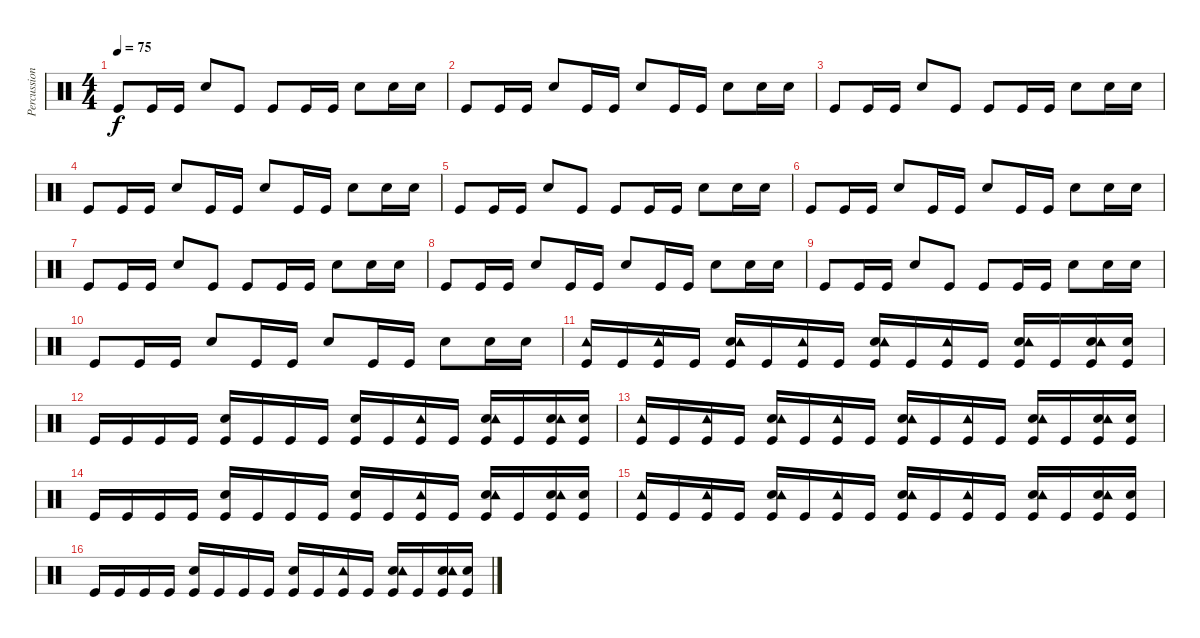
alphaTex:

\track ("Percussioni" "Percussion") {instrument percussion}
\staff {score}
\articulation defaults
\ts (4 4)
\tempo 75
\clef neutral
\ks c "Kick (hit)".8{dy f} "Kick (hit)".16 "Kick (hit)".16 "Snare (hit) 2".8 "Kick (hit)".8 "Kick (hit)".8 "Kick (hit)".16 "Kick (hit)".16 "Snare (hit) 2".8 "Snare (hit) 2".16 "Snare (hit) 2".16
|
"Kick (hit)".8 "Kick (hit)".16 "Kick (hit)".16 "Snare (hit) 2".8 "Kick (hit)".16 "Kick (hit)".16 "Snare (hit) 2".8 "Kick (hit)".16 "Kick (hit)".16 "Snare (hit) 2".8 "Snare (hit) 2".16 "Snare (hit) 2".16 |
"Kick (hit)".8 "Kick (hit)".16 "Kick (hit)".16 "Snare (hit) 2".8 "Kick (hit)".8 "Kick (hit)".8 "Kick (hit)".16 "Kick (hit)".16 "Snare (hit) 2".8 "Snare (hit) 2".16 "Snare (hit) 2".16 |
"Kick (hit)".8 "Kick (hit)".16 "Kick (hit)".16 "Snare (hit) 2".8 "Kick (hit)".16 "Kick (hit)".16 "Snare (hit) 2".8 "Kick (hit)".16 "Kick (hit)".16 "Snare (hit) 2".8 "Snare (hit) 2".16 "Snare (hit) 2".16 |
"Kick (hit)".8 "Kick (hit)".16 "Kick (hit)".16 "Snare (hit) 2".8 "Kick (hit)".8 "Kick (hit)".8 "Kick (hit)".16 "Kick (hit)".16 "Snare (hit) 2".8 "Snare (hit) 2".16 "Snare (hit) 2".16 |
"Kick (hit)".8 "Kick (hit)".16 "Kick (hit)".16 "Snare (hit) 2".8 "Kick (hit)".16 "Kick (hit)".16 "Snare (hit) 2".8 "Kick (hit)".16 "Kick (hit)".16 "Snare (hit) 2".8 "Snare (hit) 2".16 "Snare (hit) 2".16 |
"Kick (hit)".8 "Kick (hit)".16 "Kick (hit)".16 "Snare (hit) 2".8 "Kick (hit)".8 "Kick (hit)".8 "Kick (hit)".16 "Kick (hit)".16 "Snare (hit) 2".8 "Snare (hit) 2".16 "Snare (hit) 2".16 |
"Kick (hit)".8 "Kick (hit)".16 "Kick (hit)".16 "Snare (hit) 2".8 "Kick (hit)".16 "Kick (hit)".16 "Snare (hit) 2".8 "Kick (hit)".16 "Kick (hit)".16 "Snare (hit) 2".8 "Snare (hit) 2".16 "Snare (hit) 2".16 |
"Kick (hit)".8 "Kick (hit)".16 "Kick (hit)".16 "Snare (hit) 2".8 "Kick (hit)".8 "Kick (hit)".8 "Kick (hit)".16 "Kick (hit)".16 "Snare (hit) 2".8 "Snare (hit) 2".16 "Snare (hit) 2".16 |
"Kick (hit)".8 "Kick (hit)".16 "Kick (hit)".16 "Snare (hit) 2".8 "Kick (hit)".16 "Kick (hit)".16 "Snare (hit) 2".8 "Kick (hit)".16 "Kick (hit)".16 "Snare (hit) 2".8 "Snare (hit) 2".16 "Snare (hit) 2".16 |
("Kick (hit)" "Tambourine (hit)").16 "Kick (hit)".16 ("Kick (hit)" "Tambourine (hit)").16 "Kick (hit)".16 ("Snare (hit) 2" "Kick (hit)" "Tambourine (hit)").16 "Kick (hit)".16 ("Kick (hit)" "Tambourine (hit)").16 "Kick (hit)".16 ("Snare (hit) 2" "Kick (hit)" "Tambourine (hit)").16 "Kick (hit)".16 ("Kick (hit)" "Tambourine (hit)").16 "Kick (hit)".16 ("Snare (hit) 2" "Kick (hit)" "Tambourine (hit)").16 "Kick (hit)".16 ("Snare (hit) 2" "Kick (hit)" "Tambourine (hit)").16 ("Snare (hit) 2" "Kick (hit)").16 |
"Kick (hit)".16 "Kick (hit)".16 "Kick (hit)".16 "Kick (hit)".16 ("Snare (hit) 2" "Kick (hit)").16 "Kick (hit)".16 "Kick (hit)".16 "Kick (hit)".16 ("Snare (hit) 2" "Kick (hit)").16 "Kick (hit)".16 ("Kick (hit)" "Tambourine (hit)").16 "Kick (hit)".16 ("Snare (hit) 2" "Kick (hit)" "Tambourine (hit)").16 "Kick (hit)".16 ("Snare (hit) 2" "Kick (hit)" "Tambourine (hit)").16 ("Snare (hit) 2" "Kick (hit)").16 |
("Kick (hit)" "Tambourine (hit)").16 "Kick (hit)".16 ("Kick (hit)" "Tambourine (hit)").16 "Kick (hit)".16 ("Snare (hit) 2" "Kick (hit)" "Tambourine (hit)").16 "Kick (hit)".16 ("Kick (hit)" "Tambourine (hit)").16 "Kick (hit)".16 ("Snare (hit) 2" "Kick (hit)" "Tambourine (hit)").16 "Kick (hit)".16 ("Kick (hit)" "Tambourine (hit)").16 "Kick (hit)".16 ("Snare (hit) 2" "Kick (hit)" "Tambourine (hit)").16 "Kick (hit)".16 ("Snare (hit) 2" "Kick (hit)" "Tambourine (hit)").16 ("Snare (hit) 2" "Kick (hit)").16 |
"Kick (hit)".16 "Kick (hit)".16 "Kick (hit)".16 "Kick (hit)".16 ("Snare (hit) 2" "Kick (hit)").16 "Kick (hit)".16 "Kick (hit)".16 "Kick (hit)".16 ("Snare (hit) 2" "Kick (hit)").16 "Kick (hit)".16 ("Kick (hit)" "Tambourine (hit)").16 "Kick (hit)".16 ("Snare (hit) 2" "Kick (hit)" "Tambourine (hit)").16 "Kick (hit)".16 ("Snare (hit) 2" "Kick (hit)" "Tambourine (hit)").16 ("Snare (hit) 2" "Kick (hit)").16 |
("Kick (hit)" "Tambourine (hit)").16 "Kick (hit)".16 ("Kick (hit)" "Tambourine (hit)").16 "Kick (hit)".16 ("Snare (hit) 2" "Kick (hit)" "Tambourine (hit)").16 "Kick (hit)".16 ("Kick (hit)" "Tambourine (hit)").16 "Kick (hit)".16 ("Snare (hit) 2" "Kick (hit)" "Tambourine (hit)").16 "Kick (hit)".16 ("Kick (hit)" "Tambourine (hit)").16 "Kick (hit)".16 ("Snare (hit) 2" "Kick (hit)" "Tambourine (hit)").16 "Kick (hit)".16 ("Snare (hit) 2" "Kick (hit)" "Tambourine (hit)").16 ("Snare (hit) 2" "Kick (hit)").16 |
"Kick (hit)".16 "Kick (hit)".16 "Kick (hit)".16 "Kick (hit)".16 ("Snare (hit) 2" "Kick (hit)").16 "Kick (hit)".16 "Kick (hit)".16 "Kick (hit)".16 ("Snare (hit) 2" "Kick (hit)").16 "Kick (hit)".16 ("Kick (hit)" "Tambourine (hit)").16 "Kick (hit)".16 ("Snare (hit) 2" "Kick (hit)" "Tambourine (hit)").16 "Kick (hit)".16 ("Snare (hit) 2" "Kick (hit)" "Tambourine (hit)").16 ("Snare (hit) 2" "Kick (hit)").16
